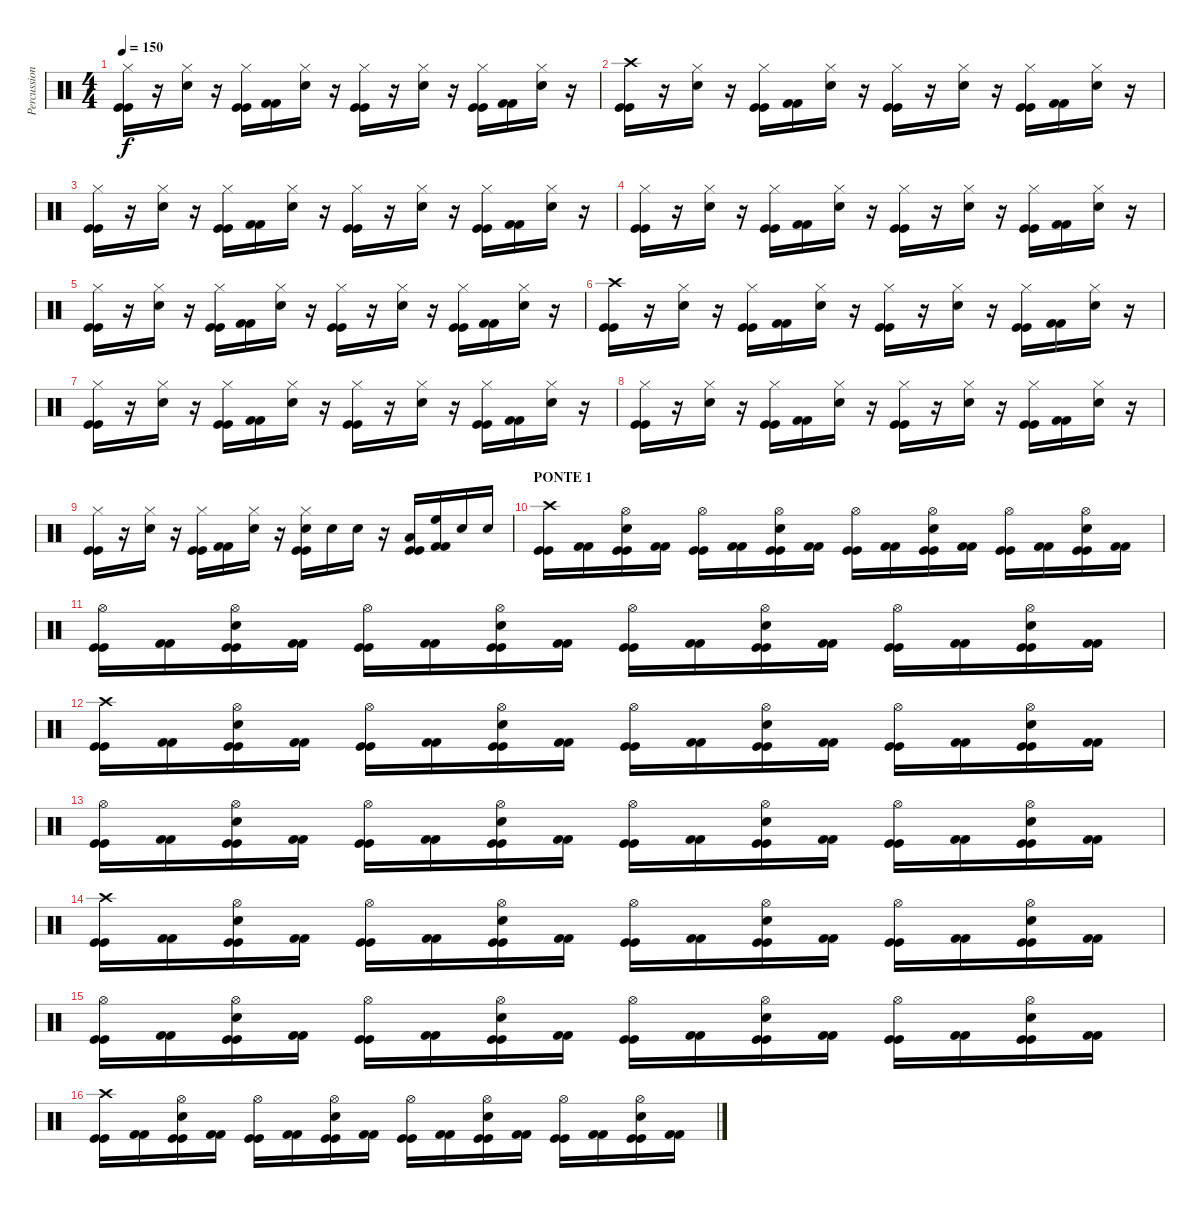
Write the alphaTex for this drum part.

\track ("Percussion" "Percussion") {instrument percussion}
\staff {score}
\articulation defaults
\ts (4 4)
\tempo 150
\clef neutral
\ks c
("Hi-Hat (closed)" "Kick (hit)" "Kick (hit)").16{dy f} r.16 ("Hi-Hat (closed)" "Electric Snare (hit)").16 r.16 ("Hi-Hat (closed)" "Kick (hit)" "Kick (hit)").16 ("Kick (hit) 2" "Kick (hit) 2").16 ("Hi-Hat (closed)" "Electric Snare (hit)").16 r.16 ("Hi-Hat (closed)" "Kick (hit)" "Kick (hit)").16 r.16 ("Hi-Hat (closed)" "Electric Snare (hit)").16 r.16 ("Hi-Hat (closed)" "Kick (hit)" "Kick (hit)").16 ("Kick (hit) 2" "Kick (hit) 2").16 ("Hi-Hat (closed)" "Electric Snare (hit)").16 r.16 |
("Crash high (hit)" "Kick (hit)" "Kick (hit)").16 r.16 ("Hi-Hat (closed)" "Electric Snare (hit)").16 r.16 ("Hi-Hat (closed)" "Kick (hit)" "Kick (hit)").16 ("Kick (hit) 2" "Kick (hit) 2").16 ("Hi-Hat (closed)" "Electric Snare (hit)").16 r.16 ("Hi-Hat (closed)" "Kick (hit)" "Kick (hit)").16 r.16 ("Hi-Hat (closed)" "Electric Snare (hit)").16 r.16 ("Hi-Hat (closed)" "Kick (hit)" "Kick (hit)").16 ("Kick (hit) 2" "Kick (hit) 2").16 ("Hi-Hat (closed)" "Electric Snare (hit)").16 r.16 |
("Hi-Hat (closed)" "Kick (hit)" "Kick (hit)").16 r.16 ("Hi-Hat (closed)" "Electric Snare (hit)").16 r.16 ("Hi-Hat (closed)" "Kick (hit)" "Kick (hit)").16 ("Kick (hit) 2" "Kick (hit) 2").16 ("Hi-Hat (closed)" "Electric Snare (hit)").16 r.16 ("Hi-Hat (closed)" "Kick (hit)" "Kick (hit)").16 r.16 ("Hi-Hat (closed)" "Electric Snare (hit)").16 r.16 ("Hi-Hat (closed)" "Kick (hit)" "Kick (hit)").16 ("Kick (hit) 2" "Kick (hit) 2").16 ("Hi-Hat (closed)" "Electric Snare (hit)").16 r.16 |
("Hi-Hat (closed)" "Kick (hit)" "Kick (hit)").16 r.16 ("Hi-Hat (closed)" "Electric Snare (hit)").16 r.16 ("Hi-Hat (closed)" "Kick (hit)" "Kick (hit)").16 ("Kick (hit) 2" "Kick (hit) 2").16 ("Hi-Hat (closed)" "Electric Snare (hit)").16 r.16 ("Hi-Hat (closed)" "Kick (hit)" "Kick (hit)").16 r.16 ("Hi-Hat (closed)" "Electric Snare (hit)").16 r.16 ("Hi-Hat (closed)" "Kick (hit)" "Kick (hit)").16 ("Kick (hit) 2" "Kick (hit) 2").16 ("Hi-Hat (closed)" "Electric Snare (hit)").16 r.16 |
("Hi-Hat (closed)" "Kick (hit)" "Kick (hit)").16 r.16 ("Hi-Hat (closed)" "Electric Snare (hit)").16 r.16 ("Hi-Hat (closed)" "Kick (hit)" "Kick (hit)").16 ("Kick (hit) 2" "Kick (hit) 2").16 ("Hi-Hat (closed)" "Electric Snare (hit)").16 r.16 ("Hi-Hat (closed)" "Kick (hit)" "Kick (hit)").16 r.16 ("Hi-Hat (closed)" "Electric Snare (hit)").16 r.16 ("Hi-Hat (closed)" "Kick (hit)" "Kick (hit)").16 ("Kick (hit) 2" "Kick (hit) 2").16 ("Hi-Hat (closed)" "Electric Snare (hit)").16 r.16 |
("Crash high (hit)" "Kick (hit)" "Kick (hit)").16 r.16 ("Hi-Hat (closed)" "Electric Snare (hit)").16 r.16 ("Hi-Hat (closed)" "Kick (hit)" "Kick (hit)").16 ("Kick (hit) 2" "Kick (hit) 2").16 ("Hi-Hat (closed)" "Electric Snare (hit)").16 r.16 ("Hi-Hat (closed)" "Kick (hit)" "Kick (hit)").16 r.16 ("Hi-Hat (closed)" "Electric Snare (hit)").16 r.16 ("Hi-Hat (closed)" "Kick (hit)" "Kick (hit)").16 ("Kick (hit) 2" "Kick (hit) 2").16 ("Hi-Hat (closed)" "Electric Snare (hit)").16 r.16 |
("Hi-Hat (closed)" "Kick (hit)" "Kick (hit)").16 r.16 ("Hi-Hat (closed)" "Electric Snare (hit)").16 r.16 ("Hi-Hat (closed)" "Kick (hit)" "Kick (hit)").16 ("Kick (hit) 2" "Kick (hit) 2").16 ("Hi-Hat (closed)" "Electric Snare (hit)").16 r.16 ("Hi-Hat (closed)" "Kick (hit)" "Kick (hit)").16 r.16 ("Hi-Hat (closed)" "Electric Snare (hit)").16 r.16 ("Hi-Hat (closed)" "Kick (hit)" "Kick (hit)").16 ("Kick (hit) 2" "Kick (hit) 2").16 ("Hi-Hat (closed)" "Electric Snare (hit)").16 r.16 |
("Hi-Hat (closed)" "Kick (hit)" "Kick (hit)").16 r.16 ("Hi-Hat (closed)" "Electric Snare (hit)").16 r.16 ("Hi-Hat (closed)" "Kick (hit)" "Kick (hit)").16 ("Kick (hit) 2" "Kick (hit) 2").16 ("Hi-Hat (closed)" "Electric Snare (hit)").16 r.16 ("Hi-Hat (closed)" "Kick (hit)" "Kick (hit)").16 r.16 ("Hi-Hat (closed)" "Electric Snare (hit)").16 r.16 ("Hi-Hat (closed)" "Kick (hit)" "Kick (hit)").16 ("Kick (hit) 2" "Kick (hit) 2").16 ("Hi-Hat (closed)" "Electric Snare (hit)").16 r.16 |
("Hi-Hat (closed)" "Kick (hit)" "Kick (hit)").16 r.16 ("Hi-Hat (closed)" "Electric Snare (hit)").16 r.16 ("Hi-Hat (closed)" "Kick (hit)" "Kick (hit)").16 ("Kick (hit) 2" "Kick (hit) 2").16 ("Hi-Hat (closed)" "Electric Snare (hit)").16 r.16 ("Hi-Hat (closed)" "Electric Snare (hit)" "Kick (hit)" "Kick (hit)").16 "Electric Snare (hit)".16 "Electric Snare (hit)".16 r.16 ("Low Tom (hit)" "Kick (hit)" "Kick (hit)").16 ("High Floor Tom (hit)" "Kick (hit) 2" "Kick (hit) 2").16 "Electric Snare (hit)".16 "Electric Snare (hit)".16 |
\section ("" "PONTE 1")
("Crash high (hit)" "Kick (hit)" "Kick (hit)").16 ("Kick (hit) 2" "Kick (hit) 2").16 ("Hi-Hat (open)" "Electric Snare (hit)" "Kick (hit)" "Kick (hit)").16 ("Kick (hit) 2" "Kick (hit) 2").16 ("Hi-Hat (open)" "Kick (hit)" "Kick (hit)").16 ("Kick (hit) 2" "Kick (hit) 2").16 ("Hi-Hat (open)" "Electric Snare (hit)" "Kick (hit)" "Kick (hit)").16 ("Kick (hit) 2" "Kick (hit) 2").16 ("Hi-Hat (open)" "Kick (hit)" "Kick (hit)").16 ("Kick (hit) 2" "Kick (hit) 2").16 ("Hi-Hat (open)" "Electric Snare (hit)" "Kick (hit)" "Kick (hit)").16 ("Kick (hit) 2" "Kick (hit) 2").16 ("Hi-Hat (open)" "Kick (hit)" "Kick (hit)").16 ("Kick (hit) 2" "Kick (hit) 2").16 ("Hi-Hat (open)" "Electric Snare (hit)" "Kick (hit)" "Kick (hit)").16 ("Kick (hit) 2" "Kick (hit) 2").16 |
("Hi-Hat (open)" "Kick (hit)" "Kick (hit)").16 ("Kick (hit) 2" "Kick (hit) 2").16 ("Hi-Hat (open)" "Electric Snare (hit)" "Kick (hit)" "Kick (hit)").16 ("Kick (hit) 2" "Kick (hit) 2").16 ("Hi-Hat (open)" "Kick (hit)" "Kick (hit)").16 ("Kick (hit) 2" "Kick (hit) 2").16 ("Hi-Hat (open)" "Electric Snare (hit)" "Kick (hit)" "Kick (hit)").16 ("Kick (hit) 2" "Kick (hit) 2").16 ("Hi-Hat (open)" "Kick (hit)" "Kick (hit)").16 ("Kick (hit) 2" "Kick (hit) 2").16 ("Hi-Hat (open)" "Electric Snare (hit)" "Kick (hit)" "Kick (hit)").16 ("Kick (hit) 2" "Kick (hit) 2").16 ("Hi-Hat (open)" "Kick (hit)" "Kick (hit)").16 ("Kick (hit) 2" "Kick (hit) 2").16 ("Hi-Hat (open)" "Electric Snare (hit)" "Kick (hit)" "Kick (hit)").16 ("Kick (hit) 2" "Kick (hit) 2").16 |
("Crash high (hit)" "Kick (hit)" "Kick (hit)").16 ("Kick (hit) 2" "Kick (hit) 2").16 ("Hi-Hat (open)" "Electric Snare (hit)" "Kick (hit)" "Kick (hit)").16 ("Kick (hit) 2" "Kick (hit) 2").16 ("Hi-Hat (open)" "Kick (hit)" "Kick (hit)").16 ("Kick (hit) 2" "Kick (hit) 2").16 ("Hi-Hat (open)" "Electric Snare (hit)" "Kick (hit)" "Kick (hit)").16 ("Kick (hit) 2" "Kick (hit) 2").16 ("Hi-Hat (open)" "Kick (hit)" "Kick (hit)").16 ("Kick (hit) 2" "Kick (hit) 2").16 ("Hi-Hat (open)" "Electric Snare (hit)" "Kick (hit)" "Kick (hit)").16 ("Kick (hit) 2" "Kick (hit) 2").16 ("Hi-Hat (open)" "Kick (hit)" "Kick (hit)").16 ("Kick (hit) 2" "Kick (hit) 2").16 ("Hi-Hat (open)" "Electric Snare (hit)" "Kick (hit)" "Kick (hit)").16 ("Kick (hit) 2" "Kick (hit) 2").16 |
("Hi-Hat (open)" "Kick (hit)" "Kick (hit)").16 ("Kick (hit) 2" "Kick (hit) 2").16 ("Hi-Hat (open)" "Electric Snare (hit)" "Kick (hit)" "Kick (hit)").16 ("Kick (hit) 2" "Kick (hit) 2").16 ("Hi-Hat (open)" "Kick (hit)" "Kick (hit)").16 ("Kick (hit) 2" "Kick (hit) 2").16 ("Hi-Hat (open)" "Electric Snare (hit)" "Kick (hit)" "Kick (hit)").16 ("Kick (hit) 2" "Kick (hit) 2").16 ("Hi-Hat (open)" "Kick (hit)" "Kick (hit)").16 ("Kick (hit) 2" "Kick (hit) 2").16 ("Hi-Hat (open)" "Electric Snare (hit)" "Kick (hit)" "Kick (hit)").16 ("Kick (hit) 2" "Kick (hit) 2").16 ("Hi-Hat (open)" "Kick (hit)" "Kick (hit)").16 ("Kick (hit) 2" "Kick (hit) 2").16 ("Hi-Hat (open)" "Electric Snare (hit)" "Kick (hit)" "Kick (hit)").16 ("Kick (hit) 2" "Kick (hit) 2").16 |
("Crash high (hit)" "Kick (hit)" "Kick (hit)").16 ("Kick (hit) 2" "Kick (hit) 2").16 ("Hi-Hat (open)" "Electric Snare (hit)" "Kick (hit)" "Kick (hit)").16 ("Kick (hit) 2" "Kick (hit) 2").16 ("Hi-Hat (open)" "Kick (hit)" "Kick (hit)").16 ("Kick (hit) 2" "Kick (hit) 2").16 ("Hi-Hat (open)" "Electric Snare (hit)" "Kick (hit)" "Kick (hit)").16 ("Kick (hit) 2" "Kick (hit) 2").16 ("Hi-Hat (open)" "Kick (hit)" "Kick (hit)").16 ("Kick (hit) 2" "Kick (hit) 2").16 ("Hi-Hat (open)" "Electric Snare (hit)" "Kick (hit)" "Kick (hit)").16 ("Kick (hit) 2" "Kick (hit) 2").16 ("Hi-Hat (open)" "Kick (hit)" "Kick (hit)").16 ("Kick (hit) 2" "Kick (hit) 2").16 ("Hi-Hat (open)" "Electric Snare (hit)" "Kick (hit)" "Kick (hit)").16 ("Kick (hit) 2" "Kick (hit) 2").16 |
("Hi-Hat (open)" "Kick (hit)" "Kick (hit)").16 ("Kick (hit) 2" "Kick (hit) 2").16 ("Hi-Hat (open)" "Electric Snare (hit)" "Kick (hit)" "Kick (hit)").16 ("Kick (hit) 2" "Kick (hit) 2").16 ("Hi-Hat (open)" "Kick (hit)" "Kick (hit)").16 ("Kick (hit) 2" "Kick (hit) 2").16 ("Hi-Hat (open)" "Electric Snare (hit)" "Kick (hit)" "Kick (hit)").16 ("Kick (hit) 2" "Kick (hit) 2").16 ("Hi-Hat (open)" "Kick (hit)" "Kick (hit)").16 ("Kick (hit) 2" "Kick (hit) 2").16 ("Hi-Hat (open)" "Electric Snare (hit)" "Kick (hit)" "Kick (hit)").16 ("Kick (hit) 2" "Kick (hit) 2").16 ("Hi-Hat (open)" "Kick (hit)" "Kick (hit)").16 ("Kick (hit) 2" "Kick (hit) 2").16 ("Hi-Hat (open)" "Electric Snare (hit)" "Kick (hit)" "Kick (hit)").16 ("Kick (hit) 2" "Kick (hit) 2").16 |
("Crash high (hit)" "Kick (hit)" "Kick (hit)").16 ("Kick (hit) 2" "Kick (hit) 2").16 ("Hi-Hat (open)" "Electric Snare (hit)" "Kick (hit)" "Kick (hit)").16 ("Kick (hit) 2" "Kick (hit) 2").16 ("Hi-Hat (open)" "Kick (hit)" "Kick (hit)").16 ("Kick (hit) 2" "Kick (hit) 2").16 ("Hi-Hat (open)" "Electric Snare (hit)" "Kick (hit)" "Kick (hit)").16 ("Kick (hit) 2" "Kick (hit) 2").16 ("Hi-Hat (open)" "Kick (hit)" "Kick (hit)").16 ("Kick (hit) 2" "Kick (hit) 2").16 ("Hi-Hat (open)" "Electric Snare (hit)" "Kick (hit)" "Kick (hit)").16 ("Kick (hit) 2" "Kick (hit) 2").16 ("Hi-Hat (open)" "Kick (hit)" "Kick (hit)").16 ("Kick (hit) 2" "Kick (hit) 2").16 ("Hi-Hat (open)" "Electric Snare (hit)" "Kick (hit)" "Kick (hit)").16 ("Kick (hit) 2" "Kick (hit) 2").16
